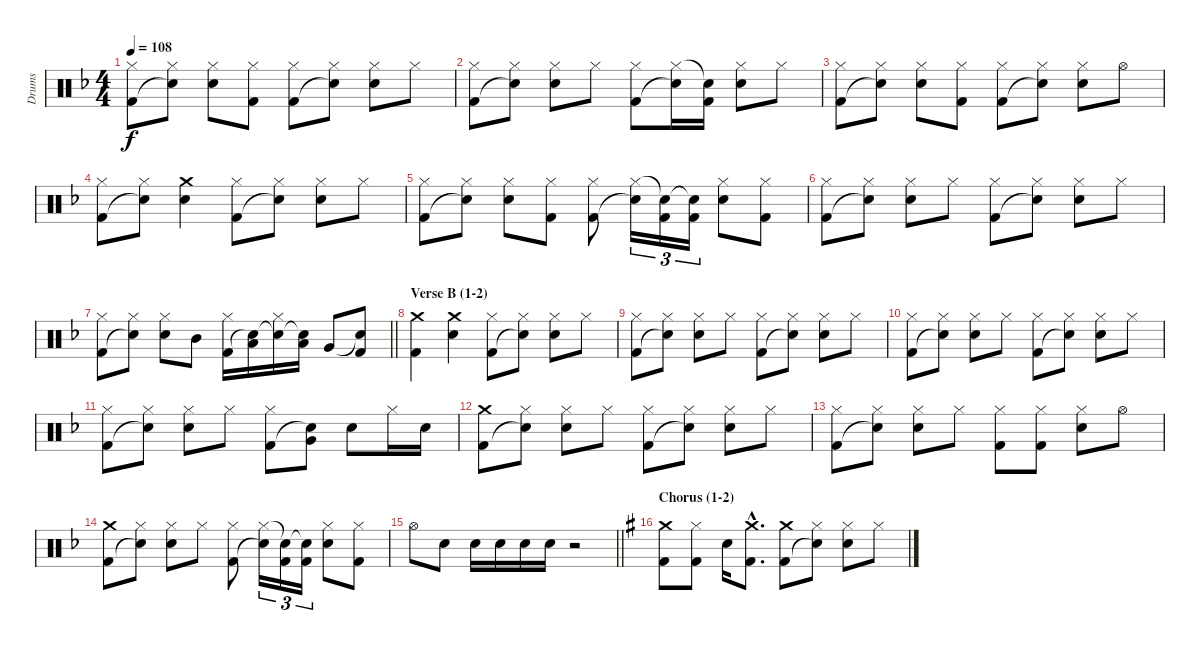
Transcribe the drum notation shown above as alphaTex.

\track ("Drums" "Drums") {instrument percussion}
\staff {score}
\articulation defaults
\ts (4 4)
\tempo 108
\clef neutral
\ks dminor
("Hi-Hat (closed)" "Kick (hit) 2").8{dy f} ("Hi-Hat (closed)" "Snare (hit)"{t}).8 ("Hi-Hat (closed)" "Electric Snare (hit)").8 ("Hi-Hat (closed)" "Kick (hit) 2").8 ("Hi-Hat (closed)" "Kick (hit) 2").8 ("Hi-Hat (closed)" "Snare (hit)"{t}).8 ("Hi-Hat (closed)" "Electric Snare (hit)").8 "Hi-Hat (closed)".8 |
("Hi-Hat (closed)" "Kick (hit) 2").8 ("Hi-Hat (closed)" "Snare (hit)"{t}).8 ("Hi-Hat (closed)" "Electric Snare (hit)").8 "Hi-Hat (closed)".8 ("Hi-Hat (closed)" "Kick (hit) 2").8 ("Hi-Hat (closed)" "Snare (hit)"{t}).16 ("Snare (hit)"{t} "Kick (hit) 2").16 ("Hi-Hat (closed)" "Electric Snare (hit)").8 "Hi-Hat (closed)".8 |
("Hi-Hat (closed)" "Kick (hit) 2").8 ("Hi-Hat (closed)" "Snare (hit)"{t}).8 ("Hi-Hat (closed)" "Electric Snare (hit)").8 ("Hi-Hat (closed)" "Kick (hit) 2").8 ("Hi-Hat (closed)" "Kick (hit) 2").8 ("Hi-Hat (closed)" "Snare (hit)"{t}).8 ("Hi-Hat (closed)" "Electric Snare (hit)").8 "Hi-Hat (open)".8 |
("Hi-Hat (closed)" "Kick (hit) 2").8 ("Hi-Hat (closed)" "Snare (hit)"{t}).8 ("Crash medium (hit)" "Electric Snare (hit)").4 ("Hi-Hat (closed)" "Kick (hit) 2").8 ("Hi-Hat (closed)" "Snare (hit)"{t}).8 ("Hi-Hat (closed)" "Electric Snare (hit)").8 "Hi-Hat (closed)".8 |
("Hi-Hat (closed)" "Kick (hit) 2").8 ("Hi-Hat (closed)" "Snare (hit)"{t}).8 ("Hi-Hat (closed)" "Electric Snare (hit)").8 ("Hi-Hat (closed)" "Kick (hit) 2").8 ("Hi-Hat (closed)" "Kick (hit) 2").8 ("Hi-Hat (closed)" "Snare (hit)"{t}).16{tu (3 2)} ("Snare (hit)"{t} "Kick (hit) 2").16{tu (3 2)} ("Snare (hit)"{t} "Kick (hit) 2").16{tu (3 2)} ("Hi-Hat (closed)" "Electric Snare (hit)").8 ("Hi-Hat (closed)" "Kick (hit) 2").8 |
("Hi-Hat (closed)" "Kick (hit) 2").8 ("Hi-Hat (closed)" "Snare (hit)"{t}).8 ("Hi-Hat (closed)" "Electric Snare (hit)").8 "Hi-Hat (closed)".8 ("Hi-Hat (closed)" "Kick (hit) 2").8 ("Hi-Hat (closed)" "Snare (hit)"{t}).8 ("Hi-Hat (closed)" "Electric Snare (hit)").8 "Hi-Hat (closed)".8 |
\barLineRight lightlight
("Hi-Hat (closed)" "Kick (hit) 2").8 ("Hi-Hat (closed)" "Snare (hit)"{t}).8 ("Hi-Hat (closed)" "Electric Snare (hit)").8 "Mid Tom (hit)".8 ("Hi-Hat (closed)" "Kick (hit) 2").16 ("Low Tom (hit)" "Snare (hit)"{t}).16 ("Hi-Hat (closed)" "Snare (hit)"{t}).16 ("Low Tom (hit)" "Snare (hit)"{t}).16 "Very Low Tom (hit)".8 ("Snare (hit)"{t} "Kick (hit) 2").8 |
\section ("" "Verse B (1-2)")
("Crash medium (hit)" "Kick (hit) 2").4 ("Crash medium (hit)" "Electric Snare (hit)").4 ("Hi-Hat (closed)" "Kick (hit) 2").8 ("Hi-Hat (closed)" "Snare (hit)"{t}).8 ("Hi-Hat (closed)" "Electric Snare (hit)").8 "Hi-Hat (closed)".8 |
("Hi-Hat (closed)" "Kick (hit) 2").8 ("Hi-Hat (closed)" "Snare (hit)"{t}).8 ("Hi-Hat (closed)" "Electric Snare (hit)").8 "Hi-Hat (closed)".8 ("Hi-Hat (closed)" "Kick (hit) 2").8 ("Hi-Hat (closed)" "Snare (hit)"{t}).8 ("Hi-Hat (closed)" "Electric Snare (hit)").8 "Hi-Hat (closed)".8 |
("Hi-Hat (closed)" "Kick (hit) 2").8 ("Hi-Hat (closed)" "Snare (hit)"{t}).8 ("Hi-Hat (closed)" "Electric Snare (hit)").8 "Hi-Hat (closed)".8 ("Hi-Hat (closed)" "Kick (hit) 2").8 ("Hi-Hat (closed)" "Snare (hit)"{t}).8 ("Hi-Hat (closed)" "Electric Snare (hit)").8 "Hi-Hat (closed)".8 |
("Hi-Hat (closed)" "Kick (hit) 2").8 ("Hi-Hat (closed)" "Snare (hit)"{t}).8 ("Hi-Hat (closed)" "Electric Snare (hit)").8 "Hi-Hat (closed)".8 ("Hi-Hat (closed)" "Kick (hit) 2").8 ("Very Low Tom (hit)" "Snare (hit)"{t}).8 "Electric Snare (hit)".8 "Hi-Hat (closed)".16 "Electric Snare (hit)".16 |
("Crash medium (hit)" "Kick (hit) 2").8 ("Hi-Hat (closed)" "Snare (hit)"{t}).8 ("Hi-Hat (closed)" "Electric Snare (hit)").8 "Hi-Hat (closed)".8 ("Hi-Hat (closed)" "Kick (hit) 2").8 ("Hi-Hat (closed)" "Snare (hit)"{t}).8 ("Hi-Hat (closed)" "Electric Snare (hit)").8 "Hi-Hat (closed)".8 |
("Hi-Hat (closed)" "Kick (hit) 2").8 ("Hi-Hat (closed)" "Snare (hit)"{t}).8 ("Hi-Hat (closed)" "Electric Snare (hit)").8 "Hi-Hat (closed)".8 ("Hi-Hat (closed)" "Kick (hit) 2").8 ("Hi-Hat (closed)" "Kick (hit) 2").8 ("Hi-Hat (closed)" "Electric Snare (hit)").8 "Hi-Hat (open)".8 |
("Crash medium (hit)" "Kick (hit) 2").8 ("Hi-Hat (closed)" "Snare (hit)"{t}).8 ("Hi-Hat (closed)" "Electric Snare (hit)").8 "Hi-Hat (closed)".8 ("Hi-Hat (closed)" "Kick (hit) 2").8 ("Hi-Hat (closed)" "Snare (hit)"{t}).16{tu (3 2)} ("Snare (hit)"{t} "Kick (hit) 2").16{tu (3 2)} ("Snare (hit)"{t} "Kick (hit) 2").16{tu (3 2)} ("Hi-Hat (closed)" "Electric Snare (hit)").8 ("Hi-Hat (closed)" "Kick (hit) 2").8 |
\barLineRight lightlight "Hi-Hat (open)".8 "Electric Snare (hit)".8 "Electric Snare (hit)".16 "Electric Snare (hit)".16 "Electric Snare (hit)".16 "Electric Snare (hit)".16
r.2 |
\section ("" "Chorus (1-2)")
\ks eminor
("Crash medium (hit)" "Kick (hit) 2").8 ("Hi-Hat (closed)" "Kick (hit) 2").8 "Electric Snare (hit)".16 ("Crash medium (hit)"{hac} "Kick (hit) 2"{hac}).8{d} ("Crash medium (hit)" "Kick (hit) 2").8 ("Hi-Hat (closed)" "Snare (hit)"{t}).8 ("Hi-Hat (closed)" "Electric Snare (hit)").8 "Hi-Hat (closed)".8
